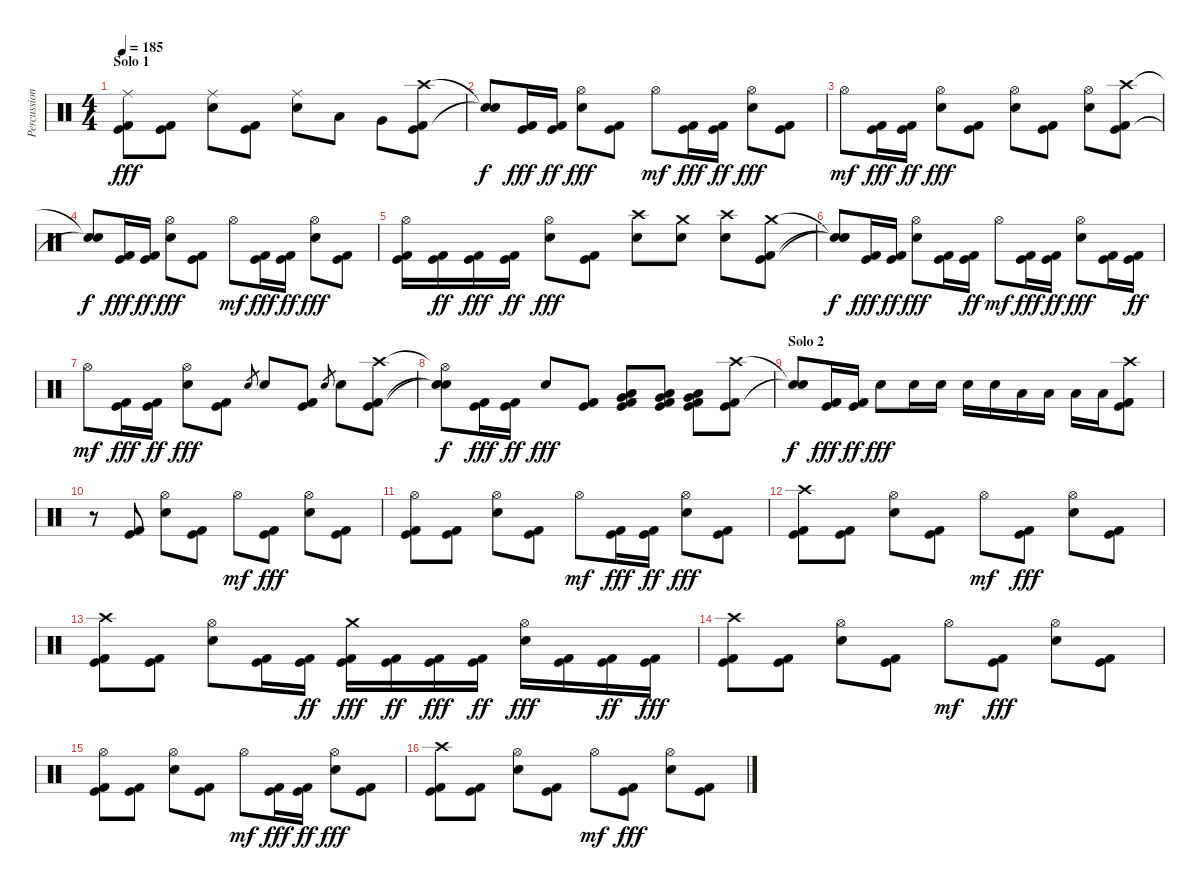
\track ("Percussion" "Percussion") {instrument percussion}
\staff {score}
\articulation defaults
\ts (4 4)
\section ("" "Solo 1")
\tempo 185
\clef neutral
\ks c
("Ride (middle)" "Kick (hit)" "Kick (hit) 2").8{dy fff} ("Kick (hit)" "Kick (hit) 2").8 ("Ride (middle)" "Snare (hit) 2").8 ("Kick (hit)" "Kick (hit) 2").8 ("Ride (middle)" "Snare (hit) 2").8 "Low Tom (hit)".8 "Very Low Tom (hit)".8 ("Crash high (hit)" "Kick (hit)" "Kick (hit) 2").8 |
("Snare (hit)"{t} "Snare (hit)"{t}).8{dy f} ("Kick (hit)" "Kick (hit) 2").16{dy fff} ("Kick (hit)" "Kick (hit) 2").16{dy ff} ("Hi-Hat (open)" "Snare (hit) 2").8{dy fff} ("Kick (hit)" "Kick (hit) 2").8 "Hi-Hat (open)".8{dy mf} ("Kick (hit)" "Kick (hit) 2").16{dy fff} ("Kick (hit)" "Kick (hit) 2").16{dy ff} ("Hi-Hat (open)" "Snare (hit) 2").8{dy fff} ("Kick (hit)" "Kick (hit) 2").8 |
"Hi-Hat (open)".8{dy mf} ("Kick (hit)" "Kick (hit) 2").16{dy fff} ("Kick (hit)" "Kick (hit) 2").16{dy ff} ("Hi-Hat (open)" "Snare (hit) 2").8{dy fff} ("Kick (hit)" "Kick (hit) 2").8 ("Hi-Hat (open)" "Snare (hit) 2").8 ("Kick (hit)" "Kick (hit) 2").8 ("Hi-Hat (open)" "Snare (hit) 2").8 ("Crash high (hit)" "Kick (hit)" "Kick (hit) 2").8 |
("Snare (hit)"{t} "Snare (hit)"{t}).8{dy f} ("Kick (hit)" "Kick (hit) 2").16{dy fff} ("Kick (hit)" "Kick (hit) 2").16{dy ff} ("Hi-Hat (open)" "Snare (hit) 2").8{dy fff} ("Kick (hit)" "Kick (hit) 2").8 "Hi-Hat (open)".8{dy mf} ("Kick (hit)" "Kick (hit) 2").16{dy fff} ("Kick (hit)" "Kick (hit) 2").16{dy ff} ("Hi-Hat (open)" "Snare (hit) 2").8{dy fff} ("Kick (hit)" "Kick (hit) 2").8 |
("Hi-Hat (open)" "Kick (hit)" "Kick (hit) 2").16 ("Kick (hit)" "Kick (hit) 2").16{dy ff} ("Kick (hit)" "Kick (hit) 2").16{dy fff} ("Kick (hit)" "Kick (hit) 2").16{dy ff} ("Hi-Hat (open)" "Snare (hit) 2").8{dy fff} ("Kick (hit)" "Kick (hit) 2").8 ("Crash high (hit)" "Snare (hit) 2").8 ("Crash medium (hit)" "Snare (hit) 2").8 ("Crash high (hit)" "Snare (hit) 2").8 ("Crash medium (hit)" "Kick (hit)" "Kick (hit) 2").8 |
("Snare (hit)"{t} "Snare (hit)"{t} "Snare (hit)"{t}).8{dy f} ("Kick (hit)" "Kick (hit) 2").16{dy fff} ("Kick (hit)" "Kick (hit) 2").16{dy ff} ("Hi-Hat (open)" "Snare (hit) 2").8{dy fff} ("Kick (hit)" "Kick (hit) 2").16 ("Kick (hit)" "Kick (hit) 2").16{dy ff} "Hi-Hat (open)".8{dy mf} ("Kick (hit)" "Kick (hit) 2").16{dy fff} ("Kick (hit)" "Kick (hit) 2").16{dy ff} ("Hi-Hat (open)" "Snare (hit) 2").8{dy fff} ("Kick (hit)" "Kick (hit) 2").16 ("Kick (hit)" "Kick (hit) 2").16{dy ff} |
"Hi-Hat (open)".8{dy mf} ("Kick (hit)" "Kick (hit) 2").16{dy fff} ("Kick (hit)" "Kick (hit) 2").16{dy ff} ("Hi-Hat (open)" "Snare (hit) 2").8{dy fff} ("Kick (hit)" "Kick (hit) 2").8 "Snare (hit) 2".8{gr} "Snare (hit) 2".8 ("Kick (hit)" "Kick (hit) 2").8 "Snare (hit) 2".8{gr} "Snare (hit) 2".8 ("Crash high (hit)" "Kick (hit)" "Kick (hit) 2").8 |
("Hi-Hat (open)"{t} "Snare (hit)"{t} "Snare (hit)"{t}).8{dy f} ("Kick (hit)" "Kick (hit) 2").16{dy fff} ("Kick (hit)" "Kick (hit) 2").16{dy ff} "Snare (hit) 2".8{dy fff} ("Kick (hit)" "Kick (hit) 2").8 ("Very Low Tom (hit)" "Low Tom (hit)" "Kick (hit)" "Kick (hit) 2").8 ("Very Low Tom (hit)" "Low Tom (hit)" "Kick (hit)" "Kick (hit) 2").8 ("Very Low Tom (hit)" "Low Tom (hit)" "Kick (hit)" "Kick (hit) 2").8 ("Crash high (hit)" "Kick (hit)" "Kick (hit) 2").8 |
\section ("" "Solo 2")
("Snare (hit)"{t} "Snare (hit)"{t}).8{dy f} ("Kick (hit)" "Kick (hit) 2").16{dy fff} ("Kick (hit)" "Kick (hit) 2").16{dy ff} "Snare (hit) 2".8{dy fff} "Snare (hit) 2".16 "Snare (hit) 2".16 "Snare (hit) 2".16 "Snare (hit) 2".16 "Low Tom (hit)".16 "Low Tom (hit)".16 "Low Tom (hit)".16 "Low Tom (hit)".16 ("Crash high (hit)" "Kick (hit)" "Kick (hit) 2").8 |
r.8 ("Kick (hit)" "Kick (hit) 2").8 ("Hi-Hat (open)" "Snare (hit) 2").8 ("Kick (hit)" "Kick (hit) 2").8 "Hi-Hat (open)".8{dy mf} ("Kick (hit)" "Kick (hit) 2").8{dy fff} ("Hi-Hat (open)" "Snare (hit) 2").8 ("Kick (hit)" "Kick (hit) 2").8 |
("Hi-Hat (open)" "Kick (hit)" "Kick (hit) 2").8 ("Kick (hit)" "Kick (hit) 2").8 ("Hi-Hat (open)" "Snare (hit) 2").8 ("Kick (hit)" "Kick (hit) 2").8 "Hi-Hat (open)".8{dy mf} ("Kick (hit)" "Kick (hit) 2").16{dy fff} ("Kick (hit)" "Kick (hit) 2").16{dy ff} ("Hi-Hat (open)" "Snare (hit) 2").8{dy fff} ("Kick (hit)" "Kick (hit) 2").8 |
("Crash high (hit)" "Kick (hit)" "Kick (hit) 2").8 ("Kick (hit)" "Kick (hit) 2").8 ("Hi-Hat (open)" "Snare (hit) 2").8 ("Kick (hit)" "Kick (hit) 2").8 "Hi-Hat (open)".8{dy mf} ("Kick (hit)" "Kick (hit) 2").8{dy fff} ("Hi-Hat (open)" "Snare (hit) 2").8 ("Kick (hit)" "Kick (hit) 2").8 |
("Crash high (hit)" "Kick (hit)" "Kick (hit) 2").8 ("Kick (hit)" "Kick (hit) 2").8 ("Hi-Hat (open)" "Snare (hit) 2").8 ("Kick (hit)" "Kick (hit) 2").16 ("Kick (hit)" "Kick (hit) 2").16{dy ff} ("Crash medium (hit)" "Kick (hit)" "Kick (hit) 2").16{dy fff} ("Kick (hit)" "Kick (hit) 2").16{dy ff} ("Kick (hit)" "Kick (hit) 2").16{dy fff} ("Kick (hit)" "Kick (hit) 2").16{dy ff} ("Hi-Hat (open)" "Snare (hit) 2").16{dy fff} ("Kick (hit)" "Kick (hit) 2").16 ("Kick (hit)" "Kick (hit) 2").16{dy ff} ("Kick (hit)" "Kick (hit) 2").16{dy fff} |
("Crash high (hit)" "Kick (hit)" "Kick (hit) 2").8 ("Kick (hit)" "Kick (hit) 2").8 ("Hi-Hat (open)" "Snare (hit) 2").8 ("Kick (hit)" "Kick (hit) 2").8 "Hi-Hat (open)".8{dy mf} ("Kick (hit)" "Kick (hit) 2").8{dy fff} ("Hi-Hat (open)" "Snare (hit) 2").8 ("Kick (hit)" "Kick (hit) 2").8 |
("Hi-Hat (open)" "Kick (hit)" "Kick (hit) 2").8 ("Kick (hit)" "Kick (hit) 2").8 ("Hi-Hat (open)" "Snare (hit) 2").8 ("Kick (hit)" "Kick (hit) 2").8 "Hi-Hat (open)".8{dy mf} ("Kick (hit)" "Kick (hit) 2").16{dy fff} ("Kick (hit)" "Kick (hit) 2").16{dy ff} ("Hi-Hat (open)" "Snare (hit) 2").8{dy fff} ("Kick (hit)" "Kick (hit) 2").8 |
("Crash high (hit)" "Kick (hit)" "Kick (hit) 2").8 ("Kick (hit)" "Kick (hit) 2").8 ("Hi-Hat (open)" "Snare (hit) 2").8 ("Kick (hit)" "Kick (hit) 2").8 "Hi-Hat (open)".8{dy mf} ("Kick (hit)" "Kick (hit) 2").8{dy fff} ("Hi-Hat (open)" "Snare (hit) 2").8 ("Kick (hit)" "Kick (hit) 2").8
